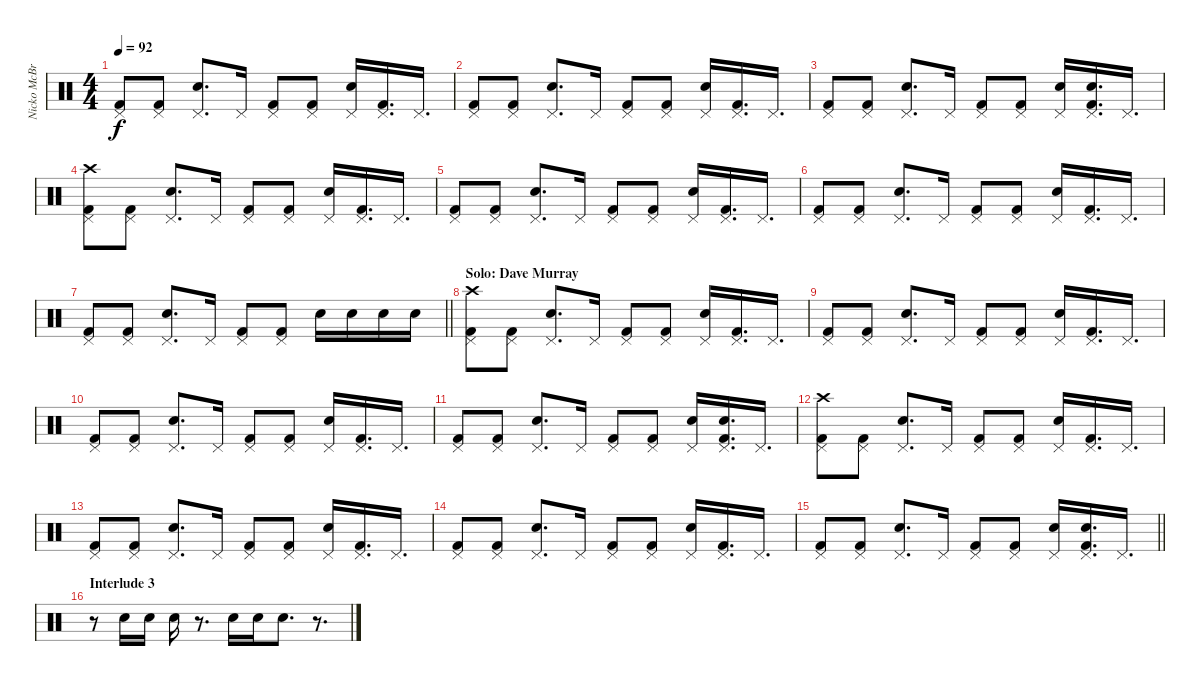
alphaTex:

\track ("Nicko McBrain" "Nicko McBr") {instrument percussion}
\staff {score}
\articulation defaults
\ts (4 4)
\tempo 92
\clef neutral
\ks c
("Pedal Hi-Hat (hit)" "Kick (hit) 2").8{dy f} ("Pedal Hi-Hat (hit)" "Kick (hit) 2").8 ("Electric Snare (hit)" "Pedal Hi-Hat (hit)").8{d} "Pedal Hi-Hat (hit)".16 ("Pedal Hi-Hat (hit)" "Kick (hit) 2").8 ("Pedal Hi-Hat (hit)" "Kick (hit) 2").8 ("Electric Snare (hit)" "Pedal Hi-Hat (hit)").16 ("Pedal Hi-Hat (hit)" "Kick (hit) 2").16{d} "Pedal Hi-Hat (hit)".16{d} |
("Pedal Hi-Hat (hit)" "Kick (hit) 2").8 ("Pedal Hi-Hat (hit)" "Kick (hit) 2").8 ("Electric Snare (hit)" "Pedal Hi-Hat (hit)").8{d} "Pedal Hi-Hat (hit)".16 ("Pedal Hi-Hat (hit)" "Kick (hit) 2").8 ("Pedal Hi-Hat (hit)" "Kick (hit) 2").8 ("Electric Snare (hit)" "Pedal Hi-Hat (hit)").16 ("Pedal Hi-Hat (hit)" "Kick (hit) 2").16{d} "Pedal Hi-Hat (hit)".16{d} |
("Pedal Hi-Hat (hit)" "Kick (hit) 2").8 ("Pedal Hi-Hat (hit)" "Kick (hit) 2").8 ("Electric Snare (hit)" "Pedal Hi-Hat (hit)").8{d} "Pedal Hi-Hat (hit)".16 ("Pedal Hi-Hat (hit)" "Kick (hit) 2").8 ("Pedal Hi-Hat (hit)" "Kick (hit) 2").8 ("Electric Snare (hit)" "Pedal Hi-Hat (hit)").16 ("Pedal Hi-Hat (hit)" "Electric Snare (hit)" "Kick (hit) 2").16{d} "Pedal Hi-Hat (hit)".16{d} |
("Pedal Hi-Hat (hit)" "Crash high (hit)" "Kick (hit) 2").8 ("Pedal Hi-Hat (hit)" "Kick (hit) 2").8 ("Electric Snare (hit)" "Pedal Hi-Hat (hit)").8{d} "Pedal Hi-Hat (hit)".16 ("Pedal Hi-Hat (hit)" "Kick (hit) 2").8 ("Pedal Hi-Hat (hit)" "Kick (hit) 2").8 ("Electric Snare (hit)" "Pedal Hi-Hat (hit)").16 ("Pedal Hi-Hat (hit)" "Kick (hit) 2").16{d} "Pedal Hi-Hat (hit)".16{d} |
("Pedal Hi-Hat (hit)" "Kick (hit) 2").8 ("Pedal Hi-Hat (hit)" "Kick (hit) 2").8 ("Electric Snare (hit)" "Pedal Hi-Hat (hit)").8{d} "Pedal Hi-Hat (hit)".16 ("Pedal Hi-Hat (hit)" "Kick (hit) 2").8 ("Pedal Hi-Hat (hit)" "Kick (hit) 2").8 ("Electric Snare (hit)" "Pedal Hi-Hat (hit)").16 ("Pedal Hi-Hat (hit)" "Kick (hit) 2").16{d} "Pedal Hi-Hat (hit)".16{d} |
("Pedal Hi-Hat (hit)" "Kick (hit) 2").8 ("Pedal Hi-Hat (hit)" "Kick (hit) 2").8 ("Electric Snare (hit)" "Pedal Hi-Hat (hit)").8{d} "Pedal Hi-Hat (hit)".16 ("Pedal Hi-Hat (hit)" "Kick (hit) 2").8 ("Pedal Hi-Hat (hit)" "Kick (hit) 2").8 ("Electric Snare (hit)" "Pedal Hi-Hat (hit)").16 ("Pedal Hi-Hat (hit)" "Kick (hit) 2").16{d} "Pedal Hi-Hat (hit)".16{d} |
\barLineRight lightlight
("Pedal Hi-Hat (hit)" "Kick (hit) 2").8 ("Pedal Hi-Hat (hit)" "Kick (hit) 2").8 ("Electric Snare (hit)" "Pedal Hi-Hat (hit)").8{d} "Pedal Hi-Hat (hit)".16 ("Pedal Hi-Hat (hit)" "Kick (hit) 2").8 ("Pedal Hi-Hat (hit)" "Kick (hit) 2").8 "Electric Snare (hit)".16 "Electric Snare (hit)".16 "Electric Snare (hit)".16 "Electric Snare (hit)".16 |
\section ("" "Solo: Dave Murray")
("Pedal Hi-Hat (hit)" "Crash high (hit)" "Kick (hit) 2").8 ("Pedal Hi-Hat (hit)" "Kick (hit) 2").8 ("Electric Snare (hit)" "Pedal Hi-Hat (hit)").8{d} "Pedal Hi-Hat (hit)".16 ("Pedal Hi-Hat (hit)" "Kick (hit) 2").8 ("Pedal Hi-Hat (hit)" "Kick (hit) 2").8 ("Electric Snare (hit)" "Pedal Hi-Hat (hit)").16 ("Pedal Hi-Hat (hit)" "Kick (hit) 2").16{d} "Pedal Hi-Hat (hit)".16{d} |
("Pedal Hi-Hat (hit)" "Kick (hit) 2").8 ("Pedal Hi-Hat (hit)" "Kick (hit) 2").8 ("Electric Snare (hit)" "Pedal Hi-Hat (hit)").8{d} "Pedal Hi-Hat (hit)".16 ("Pedal Hi-Hat (hit)" "Kick (hit) 2").8 ("Pedal Hi-Hat (hit)" "Kick (hit) 2").8 ("Electric Snare (hit)" "Pedal Hi-Hat (hit)").16 ("Pedal Hi-Hat (hit)" "Kick (hit) 2").16{d} "Pedal Hi-Hat (hit)".16{d} |
("Pedal Hi-Hat (hit)" "Kick (hit) 2").8 ("Pedal Hi-Hat (hit)" "Kick (hit) 2").8 ("Electric Snare (hit)" "Pedal Hi-Hat (hit)").8{d} "Pedal Hi-Hat (hit)".16 ("Pedal Hi-Hat (hit)" "Kick (hit) 2").8 ("Pedal Hi-Hat (hit)" "Kick (hit) 2").8 ("Electric Snare (hit)" "Pedal Hi-Hat (hit)").16 ("Pedal Hi-Hat (hit)" "Kick (hit) 2").16{d} "Pedal Hi-Hat (hit)".16{d} |
("Pedal Hi-Hat (hit)" "Kick (hit) 2").8 ("Pedal Hi-Hat (hit)" "Kick (hit) 2").8 ("Electric Snare (hit)" "Pedal Hi-Hat (hit)").8{d} "Pedal Hi-Hat (hit)".16 ("Pedal Hi-Hat (hit)" "Kick (hit) 2").8 ("Pedal Hi-Hat (hit)" "Kick (hit) 2").8 ("Electric Snare (hit)" "Pedal Hi-Hat (hit)").16 ("Pedal Hi-Hat (hit)" "Electric Snare (hit)" "Kick (hit) 2").16{d} "Pedal Hi-Hat (hit)".16{d} |
("Pedal Hi-Hat (hit)" "Crash high (hit)" "Kick (hit) 2").8 ("Pedal Hi-Hat (hit)" "Kick (hit) 2").8 ("Electric Snare (hit)" "Pedal Hi-Hat (hit)").8{d} "Pedal Hi-Hat (hit)".16 ("Pedal Hi-Hat (hit)" "Kick (hit) 2").8 ("Pedal Hi-Hat (hit)" "Kick (hit) 2").8 ("Electric Snare (hit)" "Pedal Hi-Hat (hit)").16 ("Pedal Hi-Hat (hit)" "Kick (hit) 2").16{d} "Pedal Hi-Hat (hit)".16{d} |
("Pedal Hi-Hat (hit)" "Kick (hit) 2").8 ("Pedal Hi-Hat (hit)" "Kick (hit) 2").8 ("Electric Snare (hit)" "Pedal Hi-Hat (hit)").8{d} "Pedal Hi-Hat (hit)".16 ("Pedal Hi-Hat (hit)" "Kick (hit) 2").8 ("Pedal Hi-Hat (hit)" "Kick (hit) 2").8 ("Electric Snare (hit)" "Pedal Hi-Hat (hit)").16 ("Pedal Hi-Hat (hit)" "Kick (hit) 2").16{d} "Pedal Hi-Hat (hit)".16{d} |
("Pedal Hi-Hat (hit)" "Kick (hit) 2").8 ("Pedal Hi-Hat (hit)" "Kick (hit) 2").8 ("Electric Snare (hit)" "Pedal Hi-Hat (hit)").8{d} "Pedal Hi-Hat (hit)".16 ("Pedal Hi-Hat (hit)" "Kick (hit) 2").8 ("Pedal Hi-Hat (hit)" "Kick (hit) 2").8 ("Electric Snare (hit)" "Pedal Hi-Hat (hit)").16 ("Pedal Hi-Hat (hit)" "Kick (hit) 2").16{d} "Pedal Hi-Hat (hit)".16{d} |
\barLineRight lightlight
("Pedal Hi-Hat (hit)" "Kick (hit) 2").8 ("Pedal Hi-Hat (hit)" "Kick (hit) 2").8 ("Electric Snare (hit)" "Pedal Hi-Hat (hit)").8{d} "Pedal Hi-Hat (hit)".16 ("Pedal Hi-Hat (hit)" "Kick (hit) 2").8 ("Pedal Hi-Hat (hit)" "Kick (hit) 2").8 ("Electric Snare (hit)" "Pedal Hi-Hat (hit)").16 ("Pedal Hi-Hat (hit)" "Electric Snare (hit)" "Kick (hit) 2").16{d} "Pedal Hi-Hat (hit)".16{d} |
\section ("" "Interlude 3")
r.8 "Electric Snare (hit)".16 "Electric Snare (hit)".16 "Electric Snare (hit)".16 r.8{d} "Electric Snare (hit)".16 "Electric Snare (hit)".16 "Electric Snare (hit)".8{d} r.8{d}
